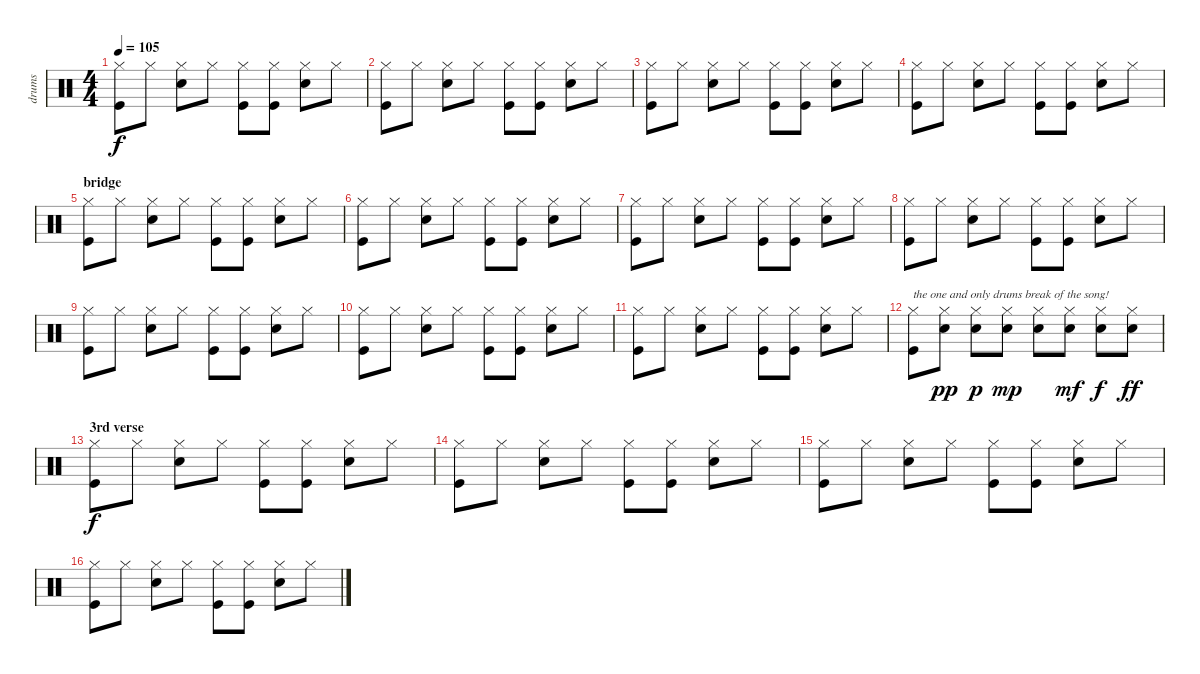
\track ("drums" "drums") {instrument percussion}
\staff {score}
\articulation defaults
\ts (4 4)
\tempo 105
\clef neutral
\ks c
("Hi-Hat (closed)" "Kick (hit)").8{dy f} "Hi-Hat (closed)".8 ("Hi-Hat (closed)" "Snare (hit) 2").8 "Hi-Hat (closed)".8 ("Hi-Hat (closed)" "Kick (hit)").8 ("Hi-Hat (closed)" "Kick (hit)").8 ("Hi-Hat (closed)" "Snare (hit) 2").8 "Hi-Hat (closed)".8 |
("Hi-Hat (closed)" "Kick (hit)").8 "Hi-Hat (closed)".8 ("Hi-Hat (closed)" "Snare (hit) 2").8 "Hi-Hat (closed)".8 ("Hi-Hat (closed)" "Kick (hit)").8 ("Hi-Hat (closed)" "Kick (hit)").8 ("Hi-Hat (closed)" "Snare (hit) 2").8 "Hi-Hat (closed)".8 |
("Hi-Hat (closed)" "Kick (hit)").8 "Hi-Hat (closed)".8 ("Hi-Hat (closed)" "Snare (hit) 2").8 "Hi-Hat (closed)".8 ("Hi-Hat (closed)" "Kick (hit)").8 ("Hi-Hat (closed)" "Kick (hit)").8 ("Hi-Hat (closed)" "Snare (hit) 2").8 "Hi-Hat (closed)".8 |
("Hi-Hat (closed)" "Kick (hit)").8 "Hi-Hat (closed)".8 ("Hi-Hat (closed)" "Snare (hit) 2").8 "Hi-Hat (closed)".8 ("Hi-Hat (closed)" "Kick (hit)").8 ("Hi-Hat (closed)" "Kick (hit)").8 ("Hi-Hat (closed)" "Snare (hit) 2").8 "Hi-Hat (closed)".8 |
\section ("" "bridge")
("Hi-Hat (closed)" "Kick (hit)").8 "Hi-Hat (closed)".8 ("Hi-Hat (closed)" "Snare (hit) 2").8 "Hi-Hat (closed)".8 ("Hi-Hat (closed)" "Kick (hit)").8 ("Hi-Hat (closed)" "Kick (hit)").8 ("Hi-Hat (closed)" "Snare (hit) 2").8 "Hi-Hat (closed)".8 |
("Hi-Hat (closed)" "Kick (hit)").8 "Hi-Hat (closed)".8 ("Hi-Hat (closed)" "Snare (hit) 2").8 "Hi-Hat (closed)".8 ("Hi-Hat (closed)" "Kick (hit)").8 ("Hi-Hat (closed)" "Kick (hit)").8 ("Hi-Hat (closed)" "Snare (hit) 2").8 "Hi-Hat (closed)".8 |
("Hi-Hat (closed)" "Kick (hit)").8 "Hi-Hat (closed)".8 ("Hi-Hat (closed)" "Snare (hit) 2").8 "Hi-Hat (closed)".8 ("Hi-Hat (closed)" "Kick (hit)").8 ("Hi-Hat (closed)" "Kick (hit)").8 ("Hi-Hat (closed)" "Snare (hit) 2").8 "Hi-Hat (closed)".8 |
("Hi-Hat (closed)" "Kick (hit)").8 "Hi-Hat (closed)".8 ("Hi-Hat (closed)" "Snare (hit) 2").8 "Hi-Hat (closed)".8 ("Hi-Hat (closed)" "Kick (hit)").8 ("Hi-Hat (closed)" "Kick (hit)").8 ("Hi-Hat (closed)" "Snare (hit) 2").8 "Hi-Hat (closed)".8 |
("Hi-Hat (closed)" "Kick (hit)").8 "Hi-Hat (closed)".8 ("Hi-Hat (closed)" "Snare (hit) 2").8 "Hi-Hat (closed)".8 ("Hi-Hat (closed)" "Kick (hit)").8 ("Hi-Hat (closed)" "Kick (hit)").8 ("Hi-Hat (closed)" "Snare (hit) 2").8 "Hi-Hat (closed)".8 |
("Hi-Hat (closed)" "Kick (hit)").8 "Hi-Hat (closed)".8 ("Hi-Hat (closed)" "Snare (hit) 2").8 "Hi-Hat (closed)".8 ("Hi-Hat (closed)" "Kick (hit)").8 ("Hi-Hat (closed)" "Kick (hit)").8 ("Hi-Hat (closed)" "Snare (hit) 2").8 "Hi-Hat (closed)".8 |
("Hi-Hat (closed)" "Kick (hit)").8 "Hi-Hat (closed)".8 ("Hi-Hat (closed)" "Snare (hit) 2").8 "Hi-Hat (closed)".8 ("Hi-Hat (closed)" "Kick (hit)").8 ("Hi-Hat (closed)" "Kick (hit)").8 ("Hi-Hat (closed)" "Snare (hit) 2").8 "Hi-Hat (closed)".8 |
("Hi-Hat (closed)" "Kick (hit)").8{txt "the one and only drums break of the song!"} ("Hi-Hat (closed)" "Snare (hit) 2").8{dy pp} ("Hi-Hat (closed)" "Snare (hit) 2").8{dy p} ("Hi-Hat (closed)" "Snare (hit) 2").8{dy mp} ("Hi-Hat (closed)" "Snare (hit) 2").8 ("Hi-Hat (closed)" "Snare (hit) 2").8{dy mf} ("Hi-Hat (closed)" "Snare (hit) 2").8{dy f} ("Hi-Hat (closed)" "Snare (hit) 2").8{dy ff} |
\section ("" "3rd verse")
("Hi-Hat (closed)" "Kick (hit)").8{dy f} "Hi-Hat (closed)".8 ("Hi-Hat (closed)" "Snare (hit) 2").8 "Hi-Hat (closed)".8 ("Hi-Hat (closed)" "Kick (hit)").8 ("Hi-Hat (closed)" "Kick (hit)").8 ("Hi-Hat (closed)" "Snare (hit) 2").8 "Hi-Hat (closed)".8 |
("Hi-Hat (closed)" "Kick (hit)").8 "Hi-Hat (closed)".8 ("Hi-Hat (closed)" "Snare (hit) 2").8 "Hi-Hat (closed)".8 ("Hi-Hat (closed)" "Kick (hit)").8 ("Hi-Hat (closed)" "Kick (hit)").8 ("Hi-Hat (closed)" "Snare (hit) 2").8 "Hi-Hat (closed)".8 |
("Hi-Hat (closed)" "Kick (hit)").8 "Hi-Hat (closed)".8 ("Hi-Hat (closed)" "Snare (hit) 2").8 "Hi-Hat (closed)".8 ("Hi-Hat (closed)" "Kick (hit)").8 ("Hi-Hat (closed)" "Kick (hit)").8 ("Hi-Hat (closed)" "Snare (hit) 2").8 "Hi-Hat (closed)".8 |
("Hi-Hat (closed)" "Kick (hit)").8 "Hi-Hat (closed)".8 ("Hi-Hat (closed)" "Snare (hit) 2").8 "Hi-Hat (closed)".8 ("Hi-Hat (closed)" "Kick (hit)").8 ("Hi-Hat (closed)" "Kick (hit)").8 ("Hi-Hat (closed)" "Snare (hit) 2").8 "Hi-Hat (closed)".8
